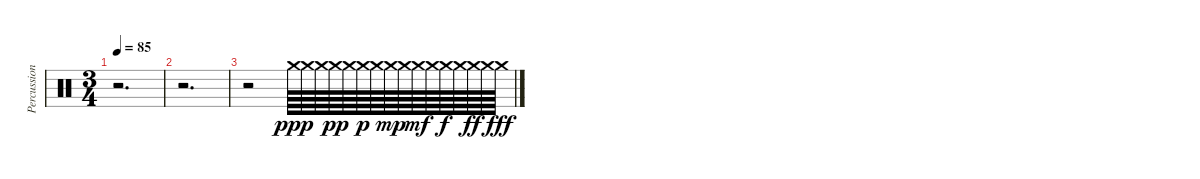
\track ("Percussion" "Percussion") {instrument percussion}
\staff {score}
\articulation defaults
\ts (3 4)
\tempo 85
\clef neutral
\ks c
r.2{d dy fff} |
r.2{d} |
r.2 "Crash medium (hit)".64{dy ppp volume 3} "Crash medium (hit)".64 "Crash medium (hit)".64 "Crash medium (hit)".64{dy pp} "Crash medium (hit)".64{volume 2} "Crash medium (hit)".64{dy p} "Crash medium (hit)".64 "Crash medium (hit)".64{dy mp} "Crash medium (hit)".64{volume 2} "Crash medium (hit)".64{dy mf} "Crash medium (hit)".64 "Crash medium (hit)".64{dy f} "Crash medium (hit)".64{volume 1} "Crash medium (hit)".64{dy ff} "Crash medium (hit)".64 "Crash medium (hit)".64{dy fff}
